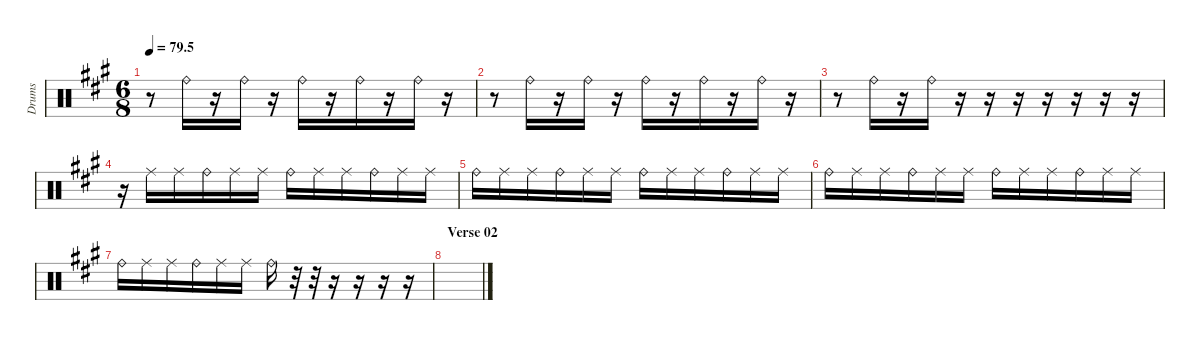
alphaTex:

\defaultSystemsLayout 4
\hideDynamics
\bracketExtendMode nobrackets
\otherSystemsTrackNameOrientation horizontal
\track ("Raid" "Drums") {instrument percussion}
\staff {score}
\articulation defaults
\ts (6 8)
\tempo
79.5
\accidentals auto
\clef neutral
\ottava regular
\simile none
\scale
0.333333
\ks a
r.8{dy f} "Ride (bell)"{acc forcenatural}.16 r.16 "Ride (bell)"{acc forcenatural}.16 r.16 "Ride (bell)"{acc forcenatural}.16 r.16 "Ride (bell)"{acc forcenatural}.16 r.16 "Ride (bell)"{acc forcenatural}.16 r.16 |
\scale
0.333333 r.8 "Ride (bell)"{acc forcenatural}.16 r.16 "Ride (bell)"{acc forcenatural}.16 r.16 "Ride (bell)"{acc forcenatural}.16 r.16 "Ride (bell)"{acc forcenatural}.16 r.16 "Ride (bell)"{acc forcenatural}.16 r.16 |
\scale
0.333333 r.8 "Ride (bell)"{acc forcenatural}.16 r.16 "Ride (bell)"{acc forcenatural}.16 r.16 r.16 r.16 r.16 r.16 r.16 r.16 |
\scale
0.333333 r.16 "Ride (middle)"{acc forcenatural}.16 "Ride (middle)"{acc forcenatural}.16 "Ride (bell)"{acc forcenatural}.16 "Ride (middle)"{acc forcenatural}.16 "Ride (middle)"{acc forcenatural}.16 "Ride (bell)"{acc forcenatural}.16 "Ride (middle)"{acc forcenatural}.16 "Ride (middle)"{acc forcenatural}.16 "Ride (bell)"{acc forcenatural}.16 "Ride (middle)"{acc forcenatural}.16 "Ride (middle)"{acc forcenatural}.16 |
\scale
0.333333 "Ride (bell)"{acc forcenatural}.16 "Ride (middle)"{acc forcenatural}.16 "Ride (middle)"{acc forcenatural}.16 "Ride (bell)"{acc forcenatural}.16 "Ride (middle)"{acc forcenatural}.16 "Ride (middle)"{acc forcenatural}.16 "Ride (bell)"{acc forcenatural}.16 "Ride (middle)"{acc forcenatural}.16 "Ride (middle)"{acc forcenatural}.16 "Ride (bell)"{acc forcenatural}.16 "Ride (middle)"{acc forcenatural}.16 "Ride (middle)"{acc forcenatural}.16 |
\scale
0.333333 "Ride (bell)"{acc forcenatural}.16 "Ride (middle)"{acc forcenatural}.16 "Ride (middle)"{acc forcenatural}.16 "Ride (bell)"{acc forcenatural}.16 "Ride (middle)"{acc forcenatural}.16 "Ride (middle)"{acc forcenatural}.16 "Ride (bell)"{acc forcenatural}.16 "Ride (middle)"{acc forcenatural}.16 "Ride (middle)"{acc forcenatural}.16 "Ride (bell)"{acc forcenatural}.16 "Ride (middle)"{acc forcenatural}.16 "Ride (middle)"{acc forcenatural}.16 |
\scale
0.333333 "Ride (bell)"{acc forcenatural}.16 "Ride (middle)"{acc forcenatural}.16 "Ride (middle)"{acc forcenatural}.16 "Ride (bell)"{acc forcenatural}.16 "Ride (middle)"{acc forcenatural}.16 "Ride (middle)"{acc forcenatural}.16 "Ride (bell)"{acc forcenatural}.16 r.32 r.32 r.16 r.16 r.16 r.16 |
\section ("" "Verse 02")
\scale
0.333333 |
\scale
0.333333 |
\scale
0.333333 |
\scale
0.333333 |
\scale
0.333333 |
\scale
0.333333 |
\scale
0.333333 |
\scale
0.333333 |
\scale
0.333333
